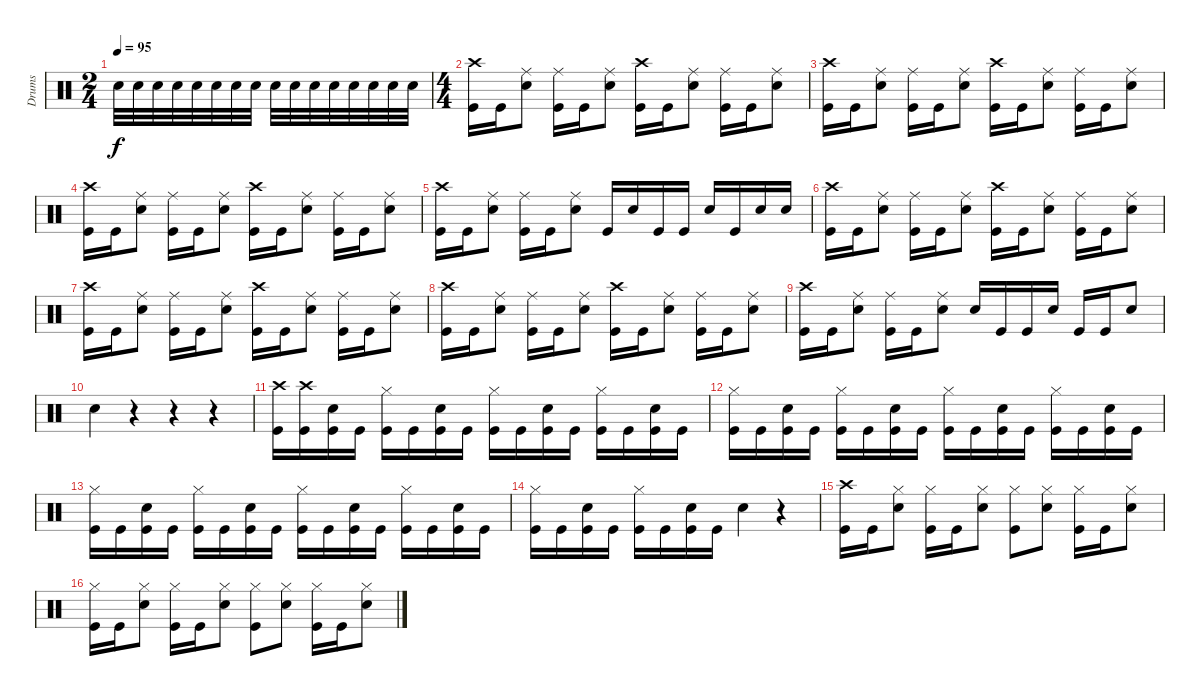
\track ("Drums" "Drums") {instrument percussion}
\staff {score}
\articulation defaults
\ts (2 4)
\tempo 95
\clef neutral
\ks c "Snare (hit) 2".32{dy f} "Snare (hit) 2".32 "Snare (hit) 2".32 "Snare (hit) 2".32 "Snare (hit) 2".32 "Snare (hit) 2".32 "Snare (hit) 2".32 "Snare (hit) 2".32 "Snare (hit) 2".32 "Snare (hit) 2".32 "Snare (hit) 2".32 "Snare (hit) 2".32 "Snare (hit) 2".32 "Snare (hit) 2".32 "Snare (hit) 2".32 "Snare (hit) 2".32
|
\ts (4 4)
("Crash high (hit)" "Kick (hit)").16 "Kick (hit)".16 ("Ride (middle)" "Snare (hit) 2").8 ("Ride (middle)" "Kick (hit)").16 "Kick (hit)".16 ("Ride (middle)" "Snare (hit) 2").8 ("Crash high (hit)" "Kick (hit)").16 "Kick (hit)".16 ("Ride (middle)" "Snare (hit) 2").8 ("Ride (middle)" "Kick (hit)").16 "Kick (hit)".16 ("Ride (middle)" "Snare (hit) 2").8 |
("Crash high (hit)" "Kick (hit)").16 "Kick (hit)".16 ("Ride (middle)" "Snare (hit) 2").8 ("Ride (middle)" "Kick (hit)").16 "Kick (hit)".16 ("Ride (middle)" "Snare (hit) 2").8 ("Crash high (hit)" "Kick (hit)").16 "Kick (hit)".16 ("Ride (middle)" "Snare (hit) 2").8 ("Ride (middle)" "Kick (hit)").16 "Kick (hit)".16 ("Ride (middle)" "Snare (hit) 2").8 |
("Crash high (hit)" "Kick (hit)").16 "Kick (hit)".16 ("Ride (middle)" "Snare (hit) 2").8 ("Ride (middle)" "Kick (hit)").16 "Kick (hit)".16 ("Ride (middle)" "Snare (hit) 2").8 ("Crash high (hit)" "Kick (hit)").16 "Kick (hit)".16 ("Ride (middle)" "Snare (hit) 2").8 ("Ride (middle)" "Kick (hit)").16 "Kick (hit)".16 ("Ride (middle)" "Snare (hit) 2").8 |
("Crash high (hit)" "Kick (hit)").16 "Kick (hit)".16 ("Ride (middle)" "Snare (hit) 2").8 ("Ride (middle)" "Kick (hit)").16 "Kick (hit)".16 ("Ride (middle)" "Snare (hit) 2").8 "Kick (hit)".16 "Snare (hit) 2".16 "Kick (hit)".16 "Kick (hit)".16 "Snare (hit) 2".16 "Kick (hit)".16 "Snare (hit) 2".16 "Snare (hit) 2".16 |
("Crash high (hit)" "Kick (hit)").16 "Kick (hit)".16 ("Ride (middle)" "Snare (hit) 2").8 ("Ride (middle)" "Kick (hit)").16 "Kick (hit)".16 ("Ride (middle)" "Snare (hit) 2").8 ("Crash high (hit)" "Kick (hit)").16 "Kick (hit)".16 ("Ride (middle)" "Snare (hit) 2").8 ("Ride (middle)" "Kick (hit)").16 "Kick (hit)".16 ("Ride (middle)" "Snare (hit) 2").8 |
("Crash high (hit)" "Kick (hit)").16 "Kick (hit)".16 ("Ride (middle)" "Snare (hit) 2").8 ("Ride (middle)" "Kick (hit)").16 "Kick (hit)".16 ("Ride (middle)" "Snare (hit) 2").8 ("Crash high (hit)" "Kick (hit)").16 "Kick (hit)".16 ("Ride (middle)" "Snare (hit) 2").8 ("Ride (middle)" "Kick (hit)").16 "Kick (hit)".16 ("Ride (middle)" "Snare (hit) 2").8 |
("Crash high (hit)" "Kick (hit)").16 "Kick (hit)".16 ("Ride (middle)" "Snare (hit) 2").8 ("Ride (middle)" "Kick (hit)").16 "Kick (hit)".16 ("Ride (middle)" "Snare (hit) 2").8 ("Crash high (hit)" "Kick (hit)").16 "Kick (hit)".16 ("Ride (middle)" "Snare (hit) 2").8 ("Ride (middle)" "Kick (hit)").16 "Kick (hit)".16 ("Ride (middle)" "Snare (hit) 2").8 |
("Crash high (hit)" "Kick (hit)").16 "Kick (hit)".16 ("Ride (middle)" "Snare (hit) 2").8 ("Ride (middle)" "Kick (hit)").16 "Kick (hit)".16 ("Ride (middle)" "Snare (hit) 2").8 "Snare (hit) 2".16 "Kick (hit)".16 "Kick (hit)".16 "Snare (hit) 2".16 "Kick (hit)".16 "Kick (hit)".16 "Snare (hit) 2".8 |
"Snare (hit) 2".4 r.4 r.4 r.4 |
("Crash high (hit)" "Kick (hit)").16 ("Crash high (hit)" "Kick (hit)").16 ("Snare (hit) 2" "Kick (hit)").16 "Kick (hit)".16 ("Hi-Hat (closed)" "Kick (hit)").16 "Kick (hit)".16 ("Snare (hit) 2" "Kick (hit)").16 "Kick (hit)".16 ("Hi-Hat (closed)" "Kick (hit)").16 "Kick (hit)".16 ("Snare (hit) 2" "Kick (hit)").16 "Kick (hit)".16 ("Hi-Hat (closed)" "Kick (hit)").16 "Kick (hit)".16 ("Snare (hit) 2" "Kick (hit)").16 "Kick (hit)".16 |
("Hi-Hat (closed)" "Kick (hit)").16 "Kick (hit)".16 ("Snare (hit) 2" "Kick (hit)").16 "Kick (hit)".16 ("Hi-Hat (closed)" "Kick (hit)").16 "Kick (hit)".16 ("Snare (hit) 2" "Kick (hit)").16 "Kick (hit)".16 ("Hi-Hat (closed)" "Kick (hit)").16 "Kick (hit)".16 ("Snare (hit) 2" "Kick (hit)").16 "Kick (hit)".16 ("Hi-Hat (closed)" "Kick (hit)").16 "Kick (hit)".16 ("Snare (hit) 2" "Kick (hit)").16 "Kick (hit)".16 |
("Hi-Hat (closed)" "Kick (hit)").16 "Kick (hit)".16 ("Snare (hit) 2" "Kick (hit)").16 "Kick (hit)".16 ("Hi-Hat (closed)" "Kick (hit)").16 "Kick (hit)".16 ("Snare (hit) 2" "Kick (hit)").16 "Kick (hit)".16 ("Hi-Hat (closed)" "Kick (hit)").16 "Kick (hit)".16 ("Snare (hit) 2" "Kick (hit)").16 "Kick (hit)".16 ("Hi-Hat (closed)" "Kick (hit)").16 "Kick (hit)".16 ("Snare (hit) 2" "Kick (hit)").16 "Kick (hit)".16 |
("Hi-Hat (closed)" "Kick (hit)").16 "Kick (hit)".16 ("Snare (hit) 2" "Kick (hit)").16 "Kick (hit)".16 ("Hi-Hat (closed)" "Kick (hit)").16 "Kick (hit)".16 ("Snare (hit) 2" "Kick (hit)").16 "Kick (hit)".16 "Snare (hit) 2".4 r.4 |
("Crash high (hit)" "Kick (hit)").16 "Kick (hit)".16 ("Hi-Hat (closed)" "Snare (hit) 2").8 ("Hi-Hat (closed)" "Kick (hit)").16 "Kick (hit)".16 ("Hi-Hat (closed)" "Snare (hit) 2").8 ("Hi-Hat (closed)" "Kick (hit)").8 ("Hi-Hat (closed)" "Snare (hit) 2").8 ("Hi-Hat (closed)" "Kick (hit)").16 "Kick (hit)".16 ("Hi-Hat (closed)" "Snare (hit) 2").8 |
("Hi-Hat (closed)" "Kick (hit)").16 "Kick (hit)".16 ("Hi-Hat (closed)" "Snare (hit) 2").8 ("Hi-Hat (closed)" "Kick (hit)").16 "Kick (hit)".16 ("Hi-Hat (closed)" "Snare (hit) 2").8 ("Hi-Hat (closed)" "Kick (hit)").8 ("Hi-Hat (closed)" "Snare (hit) 2").8 ("Hi-Hat (closed)" "Kick (hit)").16 "Kick (hit)".16 ("Hi-Hat (closed)" "Snare (hit) 2").8
